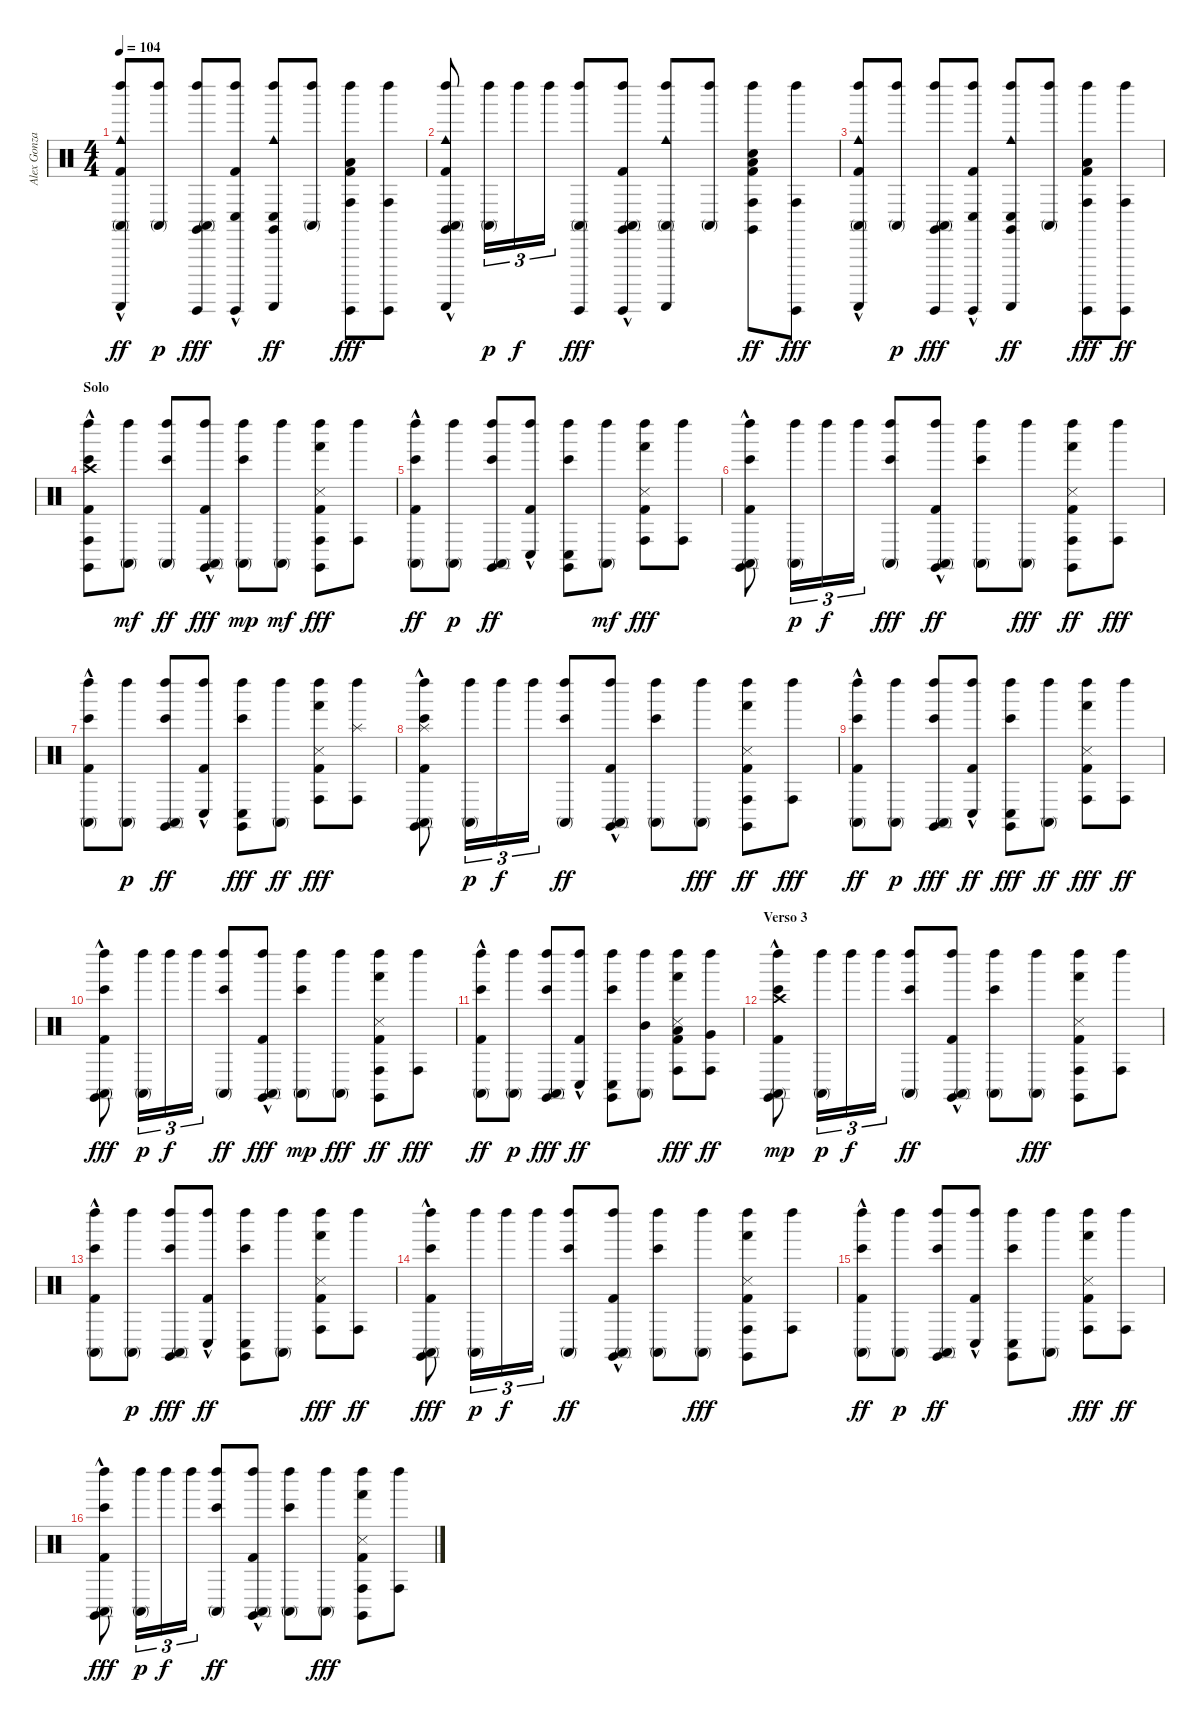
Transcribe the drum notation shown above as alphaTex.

\track ("Alex Gonzalez" "Alex Gonza") {instrument percussion}
\staff {score}
\articulation defaults
\ts (4 4)
\tempo 104
\clef neutral
\ks c
("Guiro (scrap-return)" "Kick (hit) 2"{hac} "Conga high (mute)" "Cowbell medium (hit)" "Left Maraca (hit)").8{dy ff} ("Conga high (mute)" "Left Maraca (hit)").8{dy p} ("Conga high (mute)" "Claves (hit)" "Guiro (hit)" "Left Maraca (hit)").8{dy fff} ("Kick (hit) 2"{hac} "Conga low (hit)" "Guiro (hit)" "Left Maraca (hit)").8 ("Claves (hit)" "Guiro (scrap-return)" "Cowbell medium (hit)" "Left Maraca (hit)" "Conga low (hit)").8{dy ff} ("Conga high (mute)" "Left Maraca (hit)").8 ("Conga high (hit)" "Left Maraca (hit)" "Kick (hit) 2" "Guiro (hit)" "Low Tom (hit)").8{dy fff} ("Conga high (hit)" "Left Maraca (hit)" "Guiro (hit)").8 |
("Conga high (mute)" "Claves (hit)"{hac} "Left Maraca (hit)" "Kick (hit) 2"{hac} "Guiro (scrap-return)" "Cowbell medium (hit)").8 ("Conga high (mute)" "Left Maraca (hit)").16{tu (3 2) dy p} "Left Maraca (hit)".16{tu (3 2) dy f} "Left Maraca (hit)".16{tu (3 2)} ("Left Maraca (hit)" "Guiro (hit)" "Conga high (mute)").8{dy fff} ("Claves (hit)"{hac} "Conga high (mute)" "Kick (hit) 2"{hac} "Left Maraca (hit)" "Guiro (hit)").8 ("Conga high (mute)" "Left Maraca (hit)" "Cowbell medium (hit)" "Guiro (scrap-return)").8 ("Conga high (mute)" "Left Maraca (hit)").8 ("Kick (hit) 2" "Claves (hit)" "Conga high (hit)" "Low Tom (hit)" "Electric Snare (hit)" "Left Maraca (hit)").8{dy ff} ("Conga high (hit)" "Left Maraca (hit)" "Guiro (hit)").8{dy fff} |
("Conga high (mute)" "Kick (hit) 2"{hac} "Left Maraca (hit)" "Cowbell medium (hit)" "Guiro (scrap-return)").8 ("Conga high (mute)" "Left Maraca (hit)").8{dy p} ("Claves (hit)" "Conga high (mute)" "Left Maraca (hit)" "Guiro (hit)").8{dy fff} ("Conga low (hit)" "Kick (hit) 2"{hac} "Left Maraca (hit)" "Guiro (hit)").8 ("Left Maraca (hit)" "Claves (hit)" "Cowbell medium (hit)" "Guiro (scrap-return)" "Conga low (hit)").8{dy ff} ("Conga high (mute)" "Left Maraca (hit)").8 ("Conga high (hit)" "Low Tom (hit)" "Kick (hit) 2" "Left Maraca (hit)" "Guiro (hit)").8{dy fff} ("Guiro (hit)" "Conga high (hit)" "Left Maraca (hit)").8{dy ff} |
\section ("" "Solo")
("Crash high (hit)" "Conga high (hit)" "Claves (hit)"{hac} "Kick (hit) 2"{hac} "Bongo High (hit)" "Left Maraca (hit)").8 ("Conga high (mute)" "Left Maraca (hit)").8{dy mf} ("Conga high (mute)" "Left Maraca (hit)" "Bongo High (hit)").8{dy ff} ("Claves (hit)"{hac} "Conga high (mute)" "Left Maraca (hit)" "Kick (hit) 2"{hac}).8{dy fff} ("Left Maraca (hit)" "Bongo High (hit)" "Conga high (mute)").8{dy mp} ("Conga high (mute)" "Left Maraca (hit)").8{dy mf} ("Claves (hit)" "Left Maraca (hit)" "Kick (hit) 2" "Snare (side stick) 3" "Hand (hit)" "Conga high (hit)").8{dy fff} ("Conga high (hit)" "Left Maraca (hit)").8 |
("Conga high (mute)" "Kick (hit) 2"{hac} "Bongo High (hit)" "Left Maraca (hit)").8{dy ff} ("Conga high (mute)" "Left Maraca (hit)").8{dy p} ("Claves (hit)" "Conga high (mute)" "Left Maraca (hit)" "Bongo High (hit)").8{dy ff} ("Conga low (hit)" "Left Maraca (hit)" "Kick (hit) 2"{hac}).8 ("Left Maraca (hit)" "Bongo High (hit)" "Claves (hit)" "Conga low (hit)").8 ("Conga high (mute)" "Left Maraca (hit)").8{dy mf} ("Snare (side stick) 3" "Left Maraca (hit)" "Conga high (hit)" "Kick (hit) 2" "Hand (hit)").8{dy fff} ("Conga high (hit)" "Left Maraca (hit)").8 |
("Conga high (mute)" "Claves (hit)"{hac} "Kick (hit) 2"{hac} "Bongo High (hit)" "Left Maraca (hit)").8 ("Conga high (mute)" "Left Maraca (hit)").16{tu (3 2) dy p} "Left Maraca (hit)".16{tu (3 2) dy f} "Left Maraca (hit)".16{tu (3 2)} ("Bongo High (hit)" "Left Maraca (hit)" "Conga high (mute)").8{dy fff} ("Claves (hit)"{hac} "Conga high (mute)" "Kick (hit) 2"{hac} "Left Maraca (hit)").8{dy ff} ("Conga high (mute)" "Bongo High (hit)" "Left Maraca (hit)").8 ("Conga high (mute)" "Left Maraca (hit)").8{dy fff} ("Hand (hit)" "Kick (hit) 2" "Snare (side stick) 3" "Claves (hit)" "Conga high (hit)" "Left Maraca (hit)").8{dy ff} ("Conga high (hit)" "Left Maraca (hit)").8{dy fff} |
("Kick (hit) 2"{hac} "Conga high (mute)" "Left Maraca (hit)" "Bongo High (hit)").8 ("Conga high (mute)" "Left Maraca (hit)").8{dy p} ("Conga high (mute)" "Claves (hit)" "Left Maraca (hit)" "Bongo High (hit)").8{dy ff} ("Conga low (hit)" "Kick (hit) 2"{hac} "Left Maraca (hit)").8 ("Conga low (hit)" "Left Maraca (hit)" "Bongo High (hit)" "Claves (hit)").8{dy fff} ("Conga high (mute)" "Left Maraca (hit)").8{dy ff} ("Kick (hit) 2" "Conga high (hit)" "Hand (hit)" "Snare (side stick) 3" "Left Maraca (hit)").8{dy fff} ("Conga high (hit)" "Left Maraca (hit)" "Splash (hit)").8 |
("Conga high (mute)" "Claves (hit)"{hac} "Kick (hit) 2"{hac} "Bongo High (hit)" "Left Maraca (hit)" "Splash (hit)").8 ("Conga high (mute)" "Left Maraca (hit)").16{tu (3 2) dy p} "Left Maraca (hit)".16{tu (3 2) dy f} "Left Maraca (hit)".16{tu (3 2)} ("Conga high (mute)" "Bongo High (hit)" "Left Maraca (hit)").8{dy ff} ("Claves (hit)"{hac} "Conga high (mute)" "Kick (hit) 2"{hac} "Left Maraca (hit)").8 ("Conga high (mute)" "Bongo High (hit)" "Left Maraca (hit)").8 ("Conga high (mute)" "Left Maraca (hit)").8{dy fff} ("Snare (side stick) 3" "Conga high (hit)" "Claves (hit)" "Kick (hit) 2" "Hand (hit)" "Left Maraca (hit)").8{dy ff} ("Conga high (hit)" "Left Maraca (hit)").8{dy fff} |
("Conga high (mute)" "Kick (hit) 2"{hac} "Bongo High (hit)" "Left Maraca (hit)").8{dy ff} ("Conga high (mute)" "Left Maraca (hit)").8{dy p} ("Claves (hit)" "Conga high (mute)" "Bongo High (hit)" "Left Maraca (hit)").8{dy fff} ("Conga low (hit)" "Kick (hit) 2"{hac} "Left Maraca (hit)").8{dy ff} ("Conga low (hit)" "Claves (hit)" "Left Maraca (hit)" "Bongo High (hit)").8{dy fff} ("Conga high (mute)" "Left Maraca (hit)").8{dy ff} ("Kick (hit) 2" "Left Maraca (hit)" "Snare (side stick) 3" "Hand (hit)" "Conga high (hit)").8{dy fff} ("Conga high (hit)" "Left Maraca (hit)").8{dy ff} |
("Conga high (mute)" "Kick (hit) 2"{hac} "Left Maraca (hit)" "Bongo High (hit)" "Claves (hit)"{hac}).8{dy fff} ("Conga high (mute)" "Left Maraca (hit)").16{tu (3 2) dy p} "Left Maraca (hit)".16{tu (3 2) dy f} "Left Maraca (hit)".16{tu (3 2)} ("Conga high (mute)" "Bongo High (hit)" "Left Maraca (hit)").8{dy ff} ("Conga high (mute)" "Claves (hit)"{hac} "Left Maraca (hit)" "Kick (hit) 2"{hac}).8{dy fff} ("Bongo High (hit)" "Left Maraca (hit)" "Conga high (mute)").8{dy mp} ("Conga high (mute)" "Left Maraca (hit)").8{dy fff} ("Claves (hit)" "Conga high (hit)" "Kick (hit) 2" "Snare (side stick) 3" "Hand (hit)" "Left Maraca (hit)").8{dy ff} ("Conga high (hit)" "Left Maraca (hit)").8{dy fff} |
("Conga high (mute)" "Kick (hit) 2"{hac} "Bongo High (hit)" "Left Maraca (hit)").8{dy ff} ("Conga high (mute)" "Left Maraca (hit)").8{dy p} ("Claves (hit)" "Conga high (mute)" "Bongo High (hit)" "Left Maraca (hit)").8{dy fff} ("Conga low (hit)" "Kick (hit) 2"{hac} "Left Maraca (hit)").8{dy ff} ("Claves (hit)" "Conga low (hit)" "Bongo High (hit)" "Left Maraca (hit)").8 ("Mid Tom (hit)" "Conga high (mute)" "Left Maraca (hit)").8 ("Conga high (hit)" "Hand (hit)" "Snare (side stick) 3" "Left Maraca (hit)" "Kick (hit) 2" "Low Tom (hit)").8{dy fff} ("Very Low Tom (hit)" "Conga high (hit)" "Left Maraca (hit)").8{dy ff} |
\section ("" "Verso 3")
("Kick (hit) 2"{hac} "Crash high (hit)" "Left Maraca (hit)" "Claves (hit)"{hac} "Conga high (mute)" "Bongo High (hit)").8{dy mp} ("Conga high (mute)" "Left Maraca (hit)").16{tu (3 2) dy p} "Left Maraca (hit)".16{tu (3 2) dy f} "Left Maraca (hit)".16{tu (3 2)} ("Conga high (mute)" "Bongo High (hit)" "Left Maraca (hit)").8{dy ff} ("Claves (hit)"{hac} "Conga high (mute)" "Kick (hit) 2"{hac} "Left Maraca (hit)").8 ("Conga high (mute)" "Bongo High (hit)" "Left Maraca (hit)").8 ("Conga high (mute)" "Left Maraca (hit)").8{dy fff} ("Kick (hit) 2" "Conga high (hit)" "Hand (hit)" "Claves (hit)" "Left Maraca (hit)" "Snare (side stick) 3").8 ("Conga high (hit)" "Left Maraca (hit)").8 |
("Kick (hit) 2"{hac} "Conga high (mute)" "Left Maraca (hit)" "Bongo High (hit)").8 ("Conga high (mute)" "Left Maraca (hit)").8{dy p} ("Claves (hit)" "Conga high (mute)" "Bongo High (hit)" "Left Maraca (hit)").8{dy fff} ("Kick (hit) 2"{hac} "Left Maraca (hit)" "Conga low (hit)").8{dy ff} ("Claves (hit)" "Conga low (hit)" "Bongo High (hit)" "Left Maraca (hit)").8 ("Conga high (mute)" "Left Maraca (hit)").8 ("Kick (hit) 2" "Left Maraca (hit)" "Conga high (hit)" "Snare (side stick) 3" "Hand (hit)").8{dy fff} ("Conga high (hit)" "Left Maraca (hit)").8{dy ff} |
("Conga high (mute)" "Claves (hit)"{hac} "Kick (hit) 2"{hac} "Bongo High (hit)" "Left Maraca (hit)").8{dy fff} ("Conga high (mute)" "Left Maraca (hit)").16{tu (3 2) dy p} "Left Maraca (hit)".16{tu (3 2) dy f} "Left Maraca (hit)".16{tu (3 2)} ("Conga high (mute)" "Bongo High (hit)" "Left Maraca (hit)").8{dy ff} ("Claves (hit)"{hac} "Conga high (mute)" "Kick (hit) 2"{hac} "Left Maraca (hit)").8 ("Conga high (mute)" "Bongo High (hit)" "Left Maraca (hit)").8 ("Conga high (mute)" "Left Maraca (hit)").8{dy fff} ("Snare (side stick) 3" "Conga high (hit)" "Claves (hit)" "Hand (hit)" "Left Maraca (hit)" "Kick (hit) 2").8 ("Conga high (hit)" "Left Maraca (hit)").8 |
("Conga high (mute)" "Kick (hit) 2"{hac} "Bongo High (hit)" "Left Maraca (hit)").8{dy ff} ("Conga high (mute)" "Left Maraca (hit)").8{dy p} ("Conga high (mute)" "Left Maraca (hit)" "Bongo High (hit)" "Claves (hit)").8{dy ff} ("Kick (hit) 2"{hac} "Left Maraca (hit)" "Conga low (hit)").8 ("Claves (hit)" "Conga low (hit)" "Bongo High (hit)" "Left Maraca (hit)").8 ("Conga high (mute)" "Left Maraca (hit)").8 ("Kick (hit) 2" "Hand (hit)" "Left Maraca (hit)" "Snare (side stick) 3" "Conga high (hit)").8{dy fff} ("Conga high (hit)" "Left Maraca (hit)").8{dy ff} |
("Conga high (mute)" "Kick (hit) 2"{hac} "Claves (hit)"{hac} "Left Maraca (hit)" "Bongo High (hit)").8{dy fff} ("Conga high (mute)" "Left Maraca (hit)").16{tu (3 2) dy p} "Left Maraca (hit)".16{tu (3 2) dy f} "Left Maraca (hit)".16{tu (3 2)} ("Left Maraca (hit)" "Conga high (mute)" "Bongo High (hit)").8{dy ff} ("Claves (hit)"{hac} "Conga high (mute)" "Kick (hit) 2"{hac} "Left Maraca (hit)").8 ("Left Maraca (hit)" "Conga high (mute)" "Bongo High (hit)").8 ("Conga high (mute)" "Left Maraca (hit)").8{dy fff} ("Kick (hit) 2" "Claves (hit)" "Conga high (hit)" "Hand (hit)" "Left Maraca (hit)" "Snare (side stick) 3").8 ("Conga high (hit)" "Left Maraca (hit)").8
